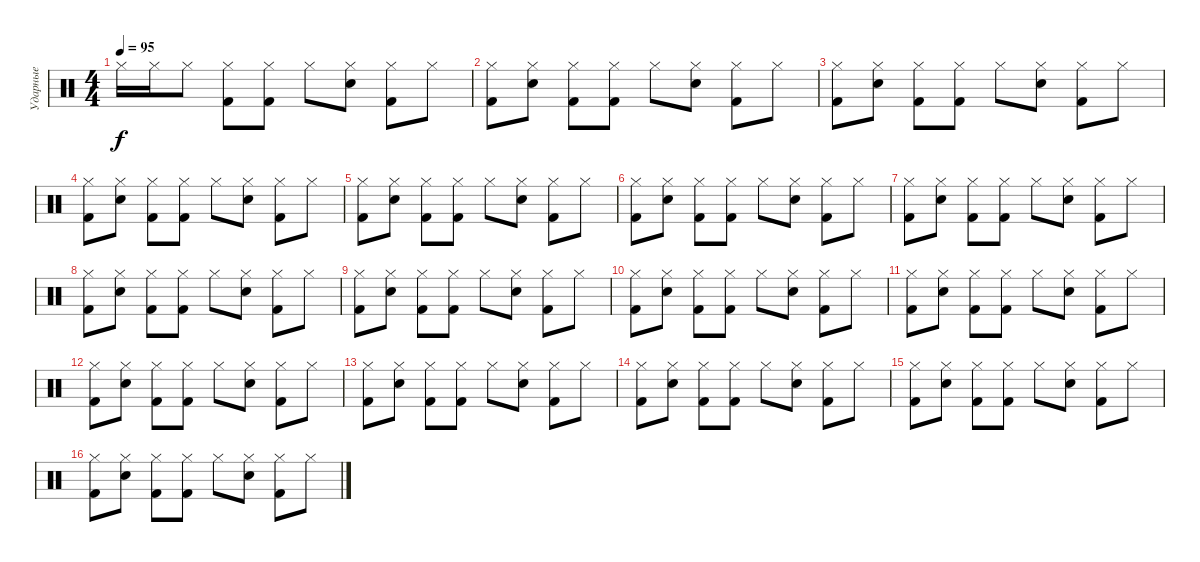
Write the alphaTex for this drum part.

\track ("Ударные" "Ударные") {instrument percussion}
\staff {score}
\articulation defaults
\ts (4 4)
\tempo 95
\clef neutral
\ks c "Hi-Hat (closed)".16{dy f} "Hi-Hat (closed)".16 "Hi-Hat (closed)".8
("Kick (hit) 2" "Hi-Hat (closed)").8 ("Kick (hit) 2" "Hi-Hat (closed)").8 "Hi-Hat (closed)".8 ("Electric Snare (hit)" "Hi-Hat (closed)").8 ("Kick (hit) 2" "Hi-Hat (closed)").8 "Hi-Hat (closed)".8 |
("Kick (hit) 2" "Hi-Hat (closed)").8 ("Electric Snare (hit)" "Hi-Hat (closed)").8 ("Kick (hit) 2" "Hi-Hat (closed)").8 ("Kick (hit) 2" "Hi-Hat (closed)").8 "Hi-Hat (closed)".8 ("Electric Snare (hit)" "Hi-Hat (closed)").8 ("Kick (hit) 2" "Hi-Hat (closed)").8 "Hi-Hat (closed)".8 |
("Kick (hit) 2" "Hi-Hat (closed)").8 ("Electric Snare (hit)" "Hi-Hat (closed)").8 ("Kick (hit) 2" "Hi-Hat (closed)").8 ("Kick (hit) 2" "Hi-Hat (closed)").8 "Hi-Hat (closed)".8 ("Electric Snare (hit)" "Hi-Hat (closed)").8 ("Kick (hit) 2" "Hi-Hat (closed)").8 "Hi-Hat (closed)".8 |
("Kick (hit) 2" "Hi-Hat (closed)").8 ("Electric Snare (hit)" "Hi-Hat (closed)").8 ("Kick (hit) 2" "Hi-Hat (closed)").8 ("Kick (hit) 2" "Hi-Hat (closed)").8 "Hi-Hat (closed)".8 ("Electric Snare (hit)" "Hi-Hat (closed)").8 ("Kick (hit) 2" "Hi-Hat (closed)").8 "Hi-Hat (closed)".8 |
("Kick (hit) 2" "Hi-Hat (closed)").8 ("Electric Snare (hit)" "Hi-Hat (closed)").8 ("Kick (hit) 2" "Hi-Hat (closed)").8 ("Kick (hit) 2" "Hi-Hat (closed)").8 "Hi-Hat (closed)".8 ("Electric Snare (hit)" "Hi-Hat (closed)").8 ("Kick (hit) 2" "Hi-Hat (closed)").8 "Hi-Hat (closed)".8 |
("Kick (hit) 2" "Hi-Hat (closed)").8 ("Electric Snare (hit)" "Hi-Hat (closed)").8 ("Kick (hit) 2" "Hi-Hat (closed)").8 ("Kick (hit) 2" "Hi-Hat (closed)").8 "Hi-Hat (closed)".8 ("Electric Snare (hit)" "Hi-Hat (closed)").8 ("Kick (hit) 2" "Hi-Hat (closed)").8 "Hi-Hat (closed)".8 |
("Kick (hit) 2" "Hi-Hat (closed)").8 ("Electric Snare (hit)" "Hi-Hat (closed)").8 ("Kick (hit) 2" "Hi-Hat (closed)").8 ("Kick (hit) 2" "Hi-Hat (closed)").8 "Hi-Hat (closed)".8 ("Electric Snare (hit)" "Hi-Hat (closed)").8 ("Kick (hit) 2" "Hi-Hat (closed)").8 "Hi-Hat (closed)".8 |
("Kick (hit) 2" "Hi-Hat (closed)").8 ("Electric Snare (hit)" "Hi-Hat (closed)").8 ("Kick (hit) 2" "Hi-Hat (closed)").8 ("Kick (hit) 2" "Hi-Hat (closed)").8 "Hi-Hat (closed)".8 ("Electric Snare (hit)" "Hi-Hat (closed)").8 ("Kick (hit) 2" "Hi-Hat (closed)").8 "Hi-Hat (closed)".8 |
("Kick (hit) 2" "Hi-Hat (closed)").8 ("Electric Snare (hit)" "Hi-Hat (closed)").8 ("Kick (hit) 2" "Hi-Hat (closed)").8 ("Kick (hit) 2" "Hi-Hat (closed)").8 "Hi-Hat (closed)".8 ("Electric Snare (hit)" "Hi-Hat (closed)").8 ("Kick (hit) 2" "Hi-Hat (closed)").8 "Hi-Hat (closed)".8 |
("Kick (hit) 2" "Hi-Hat (closed)").8 ("Electric Snare (hit)" "Hi-Hat (closed)").8 ("Kick (hit) 2" "Hi-Hat (closed)").8 ("Kick (hit) 2" "Hi-Hat (closed)").8 "Hi-Hat (closed)".8 ("Electric Snare (hit)" "Hi-Hat (closed)").8 ("Kick (hit) 2" "Hi-Hat (closed)").8 "Hi-Hat (closed)".8 |
("Kick (hit) 2" "Hi-Hat (closed)").8 ("Electric Snare (hit)" "Hi-Hat (closed)").8 ("Kick (hit) 2" "Hi-Hat (closed)").8 ("Kick (hit) 2" "Hi-Hat (closed)").8 "Hi-Hat (closed)".8 ("Electric Snare (hit)" "Hi-Hat (closed)").8 ("Kick (hit) 2" "Hi-Hat (closed)").8 "Hi-Hat (closed)".8 |
("Kick (hit) 2" "Hi-Hat (closed)").8 ("Electric Snare (hit)" "Hi-Hat (closed)").8 ("Kick (hit) 2" "Hi-Hat (closed)").8 ("Kick (hit) 2" "Hi-Hat (closed)").8 "Hi-Hat (closed)".8 ("Electric Snare (hit)" "Hi-Hat (closed)").8 ("Kick (hit) 2" "Hi-Hat (closed)").8 "Hi-Hat (closed)".8 |
("Kick (hit) 2" "Hi-Hat (closed)").8 ("Electric Snare (hit)" "Hi-Hat (closed)").8 ("Kick (hit) 2" "Hi-Hat (closed)").8 ("Kick (hit) 2" "Hi-Hat (closed)").8 "Hi-Hat (closed)".8 ("Electric Snare (hit)" "Hi-Hat (closed)").8 ("Kick (hit) 2" "Hi-Hat (closed)").8 "Hi-Hat (closed)".8 |
("Kick (hit) 2" "Hi-Hat (closed)").8 ("Electric Snare (hit)" "Hi-Hat (closed)").8 ("Kick (hit) 2" "Hi-Hat (closed)").8 ("Kick (hit) 2" "Hi-Hat (closed)").8 "Hi-Hat (closed)".8 ("Electric Snare (hit)" "Hi-Hat (closed)").8 ("Kick (hit) 2" "Hi-Hat (closed)").8 "Hi-Hat (closed)".8 |
("Kick (hit) 2" "Hi-Hat (closed)").8 ("Electric Snare (hit)" "Hi-Hat (closed)").8 ("Kick (hit) 2" "Hi-Hat (closed)").8 ("Kick (hit) 2" "Hi-Hat (closed)").8 "Hi-Hat (closed)".8 ("Electric Snare (hit)" "Hi-Hat (closed)").8 ("Kick (hit) 2" "Hi-Hat (closed)").8 "Hi-Hat (closed)".8 |
("Kick (hit) 2" "Hi-Hat (closed)").8 ("Electric Snare (hit)" "Hi-Hat (closed)").8 ("Kick (hit) 2" "Hi-Hat (closed)").8 ("Kick (hit) 2" "Hi-Hat (closed)").8 "Hi-Hat (closed)".8 ("Electric Snare (hit)" "Hi-Hat (closed)").8 ("Kick (hit) 2" "Hi-Hat (closed)").8 "Hi-Hat (closed)".8
